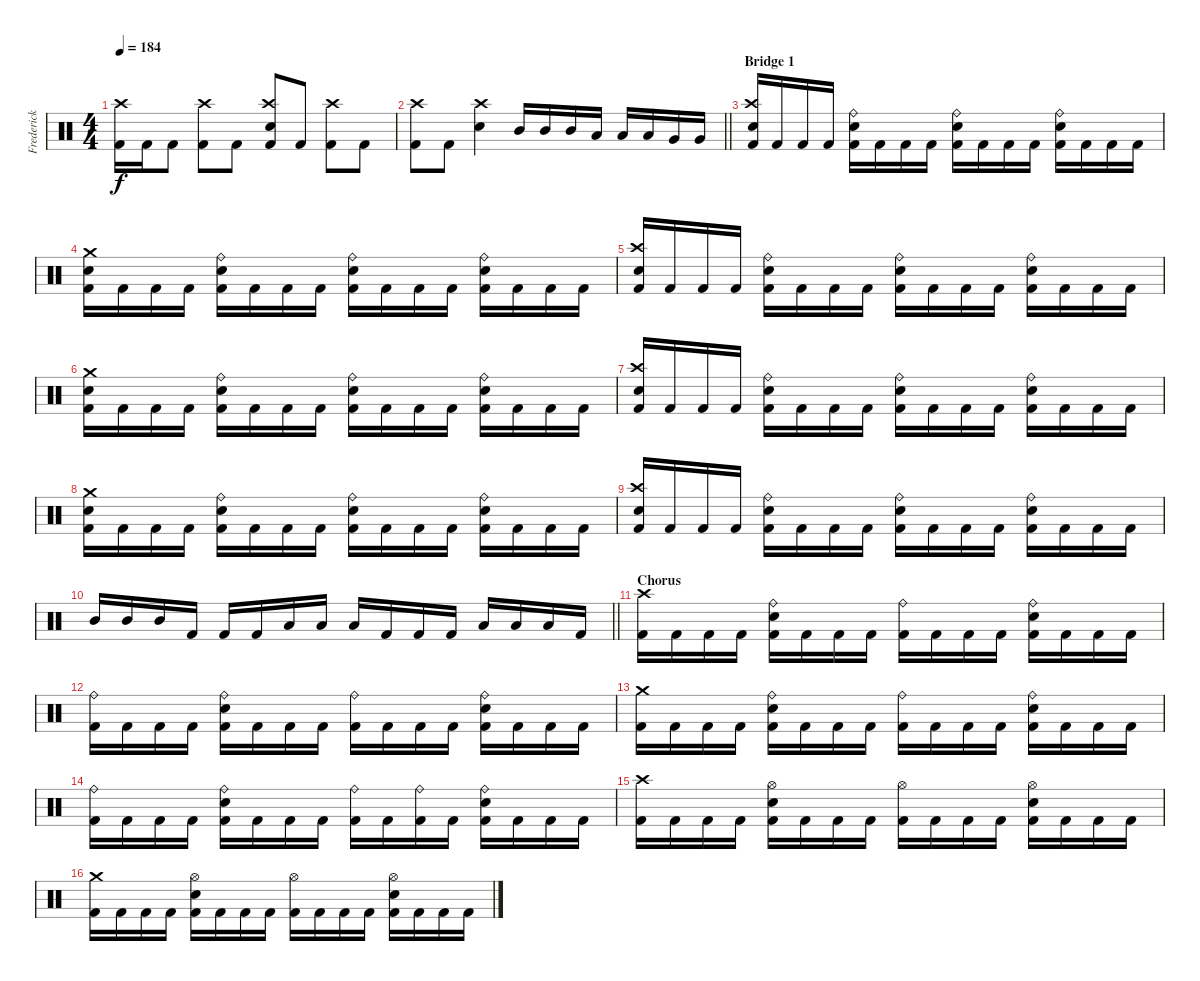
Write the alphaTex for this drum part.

\track ("Frederick Ehmke" "Frederick ") {instrument percussion}
\staff {score}
\articulation defaults
\ts (4 4)
\tempo 184
\clef neutral
\ks c
("Kick (hit) 2" "Crash high (hit)").16{dy f} "Kick (hit) 2".16 "Kick (hit) 2".8 ("Kick (hit) 2" "Crash high (hit)").8 "Kick (hit) 2".8 ("Electric Snare (hit)" "Kick (hit) 2" "Crash high (hit)").8 "Kick (hit) 2".8 ("Kick (hit) 2" "Crash high (hit)").8 "Kick (hit) 2".8 |
\barLineRight lightlight
("Kick (hit) 2" "Crash high (hit)").8 "Kick (hit) 2".8 ("Electric Snare (hit)" "Crash high (hit)").4 "Mid Tom (hit)".16 "Mid Tom (hit)".16 "Mid Tom (hit)".16 "Low Tom (hit)".16 "Low Tom (hit)".16 "Low Tom (hit)".16 "Very Low Tom (hit)".16 "Very Low Tom (hit)".16 |
\section ("" "Bridge 1")
("Electric Snare (hit)" "Kick (hit) 2" "Crash high (hit)").16 "Kick (hit) 2".16 "Kick (hit) 2".16 "Kick (hit) 2".16 ("Electric Snare (hit)" "Kick (hit) 2" "Ride (bell)").16 "Kick (hit) 2".16 "Kick (hit) 2".16 "Kick (hit) 2".16 ("Electric Snare (hit)" "Kick (hit) 2" "Ride (bell)").16 "Kick (hit) 2".16 "Kick (hit) 2".16 "Kick (hit) 2".16 ("Electric Snare (hit)" "Kick (hit) 2" "Ride (bell)").16 "Kick (hit) 2".16 "Kick (hit) 2".16 "Kick (hit) 2".16 |
("Electric Snare (hit)" "Kick (hit) 2" "Crash medium (hit)").16 "Kick (hit) 2".16 "Kick (hit) 2".16 "Kick (hit) 2".16 ("Electric Snare (hit)" "Kick (hit) 2" "Ride (bell)").16 "Kick (hit) 2".16 "Kick (hit) 2".16 "Kick (hit) 2".16 ("Electric Snare (hit)" "Kick (hit) 2" "Ride (bell)").16 "Kick (hit) 2".16 "Kick (hit) 2".16 "Kick (hit) 2".16 ("Electric Snare (hit)" "Kick (hit) 2" "Ride (bell)").16 "Kick (hit) 2".16 "Kick (hit) 2".16 "Kick (hit) 2".16 |
("Electric Snare (hit)" "Kick (hit) 2" "Crash high (hit)").16 "Kick (hit) 2".16 "Kick (hit) 2".16 "Kick (hit) 2".16 ("Electric Snare (hit)" "Kick (hit) 2" "Ride (bell)").16 "Kick (hit) 2".16 "Kick (hit) 2".16 "Kick (hit) 2".16 ("Electric Snare (hit)" "Kick (hit) 2" "Ride (bell)").16 "Kick (hit) 2".16 "Kick (hit) 2".16 "Kick (hit) 2".16 ("Electric Snare (hit)" "Kick (hit) 2" "Ride (bell)").16 "Kick (hit) 2".16 "Kick (hit) 2".16 "Kick (hit) 2".16 |
("Electric Snare (hit)" "Kick (hit) 2" "Crash medium (hit)").16 "Kick (hit) 2".16 "Kick (hit) 2".16 "Kick (hit) 2".16 ("Electric Snare (hit)" "Kick (hit) 2" "Ride (bell)").16 "Kick (hit) 2".16 "Kick (hit) 2".16 "Kick (hit) 2".16 ("Electric Snare (hit)" "Kick (hit) 2" "Ride (bell)").16 "Kick (hit) 2".16 "Kick (hit) 2".16 "Kick (hit) 2".16 ("Electric Snare (hit)" "Kick (hit) 2" "Ride (bell)").16 "Kick (hit) 2".16 "Kick (hit) 2".16 "Kick (hit) 2".16 |
("Electric Snare (hit)" "Kick (hit) 2" "Crash high (hit)").16 "Kick (hit) 2".16 "Kick (hit) 2".16 "Kick (hit) 2".16 ("Electric Snare (hit)" "Kick (hit) 2" "Ride (bell)").16 "Kick (hit) 2".16 "Kick (hit) 2".16 "Kick (hit) 2".16 ("Electric Snare (hit)" "Kick (hit) 2" "Ride (bell)").16 "Kick (hit) 2".16 "Kick (hit) 2".16 "Kick (hit) 2".16 ("Electric Snare (hit)" "Kick (hit) 2" "Ride (bell)").16 "Kick (hit) 2".16 "Kick (hit) 2".16 "Kick (hit) 2".16 |
("Electric Snare (hit)" "Kick (hit) 2" "Crash medium (hit)").16 "Kick (hit) 2".16 "Kick (hit) 2".16 "Kick (hit) 2".16 ("Electric Snare (hit)" "Kick (hit) 2" "Ride (bell)").16 "Kick (hit) 2".16 "Kick (hit) 2".16 "Kick (hit) 2".16 ("Electric Snare (hit)" "Kick (hit) 2" "Ride (bell)").16 "Kick (hit) 2".16 "Kick (hit) 2".16 "Kick (hit) 2".16 ("Electric Snare (hit)" "Kick (hit) 2" "Ride (bell)").16 "Kick (hit) 2".16 "Kick (hit) 2".16 "Kick (hit) 2".16 |
("Electric Snare (hit)" "Kick (hit) 2" "Crash high (hit)").16 "Kick (hit) 2".16 "Kick (hit) 2".16 "Kick (hit) 2".16 ("Electric Snare (hit)" "Kick (hit) 2" "Ride (bell)").16 "Kick (hit) 2".16 "Kick (hit) 2".16 "Kick (hit) 2".16 ("Electric Snare (hit)" "Kick (hit) 2" "Ride (bell)").16 "Kick (hit) 2".16 "Kick (hit) 2".16 "Kick (hit) 2".16 ("Electric Snare (hit)" "Kick (hit) 2" "Ride (bell)").16 "Kick (hit) 2".16 "Kick (hit) 2".16 "Kick (hit) 2".16 |
\barLineRight lightlight "Mid Tom (hit)".16 "Mid Tom (hit)".16 "Mid Tom (hit)".16 "Kick (hit) 2".16 "Kick (hit) 2".16 "Kick (hit) 2".16 "Low Tom (hit)".16 "Low Tom (hit)".16 "Low Tom (hit)".16 "Kick (hit) 2".16 "Kick (hit) 2".16 "Kick (hit) 2".16 "Low Floor Tom (hit)".16 "Low Floor Tom (hit)".16 "Low Floor Tom (hit)".16 "Kick (hit) 2".16
|
\section ("" "Chorus")
("Kick (hit) 2" "Crash high (hit)").16 "Kick (hit) 2".16 "Kick (hit) 2".16 "Kick (hit) 2".16 ("Electric Snare (hit)" "Kick (hit) 2" "Ride (bell)").16 "Kick (hit) 2".16 "Kick (hit) 2".16 "Kick (hit) 2".16 ("Kick (hit) 2" "Ride (bell)").16 "Kick (hit) 2".16 "Kick (hit) 2".16 "Kick (hit) 2".16 ("Electric Snare (hit)" "Kick (hit) 2" "Ride (bell)").16 "Kick (hit) 2".16 "Kick (hit) 2".16 "Kick (hit) 2".16 |
("Kick (hit) 2" "Ride (bell)").16 "Kick (hit) 2".16 "Kick (hit) 2".16 "Kick (hit) 2".16 ("Electric Snare (hit)" "Kick (hit) 2" "Ride (bell)").16 "Kick (hit) 2".16 "Kick (hit) 2".16 "Kick (hit) 2".16 ("Kick (hit) 2" "Ride (bell)").16 "Kick (hit) 2".16 "Kick (hit) 2".16 "Kick (hit) 2".16 ("Electric Snare (hit)" "Kick (hit) 2" "Ride (bell)").16 "Kick (hit) 2".16 "Kick (hit) 2".16 "Kick (hit) 2".16 |
("Kick (hit) 2" "Crash medium (hit)").16 "Kick (hit) 2".16 "Kick (hit) 2".16 "Kick (hit) 2".16 ("Electric Snare (hit)" "Kick (hit) 2" "Ride (bell)").16 "Kick (hit) 2".16 "Kick (hit) 2".16 "Kick (hit) 2".16 ("Kick (hit) 2" "Ride (bell)").16 "Kick (hit) 2".16 "Kick (hit) 2".16 "Kick (hit) 2".16 ("Electric Snare (hit)" "Kick (hit) 2" "Ride (bell)").16 "Kick (hit) 2".16 "Kick (hit) 2".16 "Kick (hit) 2".16 |
("Kick (hit) 2" "Ride (bell)").16 "Kick (hit) 2".16 "Kick (hit) 2".16 "Kick (hit) 2".16 ("Electric Snare (hit)" "Kick (hit) 2" "Ride (bell)").16 "Kick (hit) 2".16 "Kick (hit) 2".16 "Kick (hit) 2".16 ("Kick (hit) 2" "Ride (bell)").16 "Kick (hit) 2".16 ("Kick (hit) 2" "Ride (bell)").16 "Kick (hit) 2".16 ("Electric Snare (hit)" "Kick (hit) 2" "Ride (bell)").16 "Kick (hit) 2".16 "Kick (hit) 2".16 "Kick (hit) 2".16 |
("Kick (hit) 2" "Crash high (hit)").16 "Kick (hit) 2".16 "Kick (hit) 2".16 "Kick (hit) 2".16 ("Electric Snare (hit)" "Kick (hit) 2" "Hi-Hat (open)").16 "Kick (hit) 2".16 "Kick (hit) 2".16 "Kick (hit) 2".16 ("Kick (hit) 2" "Hi-Hat (open)").16 "Kick (hit) 2".16 "Kick (hit) 2".16 "Kick (hit) 2".16 ("Electric Snare (hit)" "Kick (hit) 2" "Hi-Hat (open)").16 "Kick (hit) 2".16 "Kick (hit) 2".16 "Kick (hit) 2".16 |
("Kick (hit) 2" "Crash medium (hit)").16 "Kick (hit) 2".16 "Kick (hit) 2".16 "Kick (hit) 2".16 ("Electric Snare (hit)" "Kick (hit) 2" "Hi-Hat (open)").16 "Kick (hit) 2".16 "Kick (hit) 2".16 "Kick (hit) 2".16 ("Kick (hit) 2" "Hi-Hat (open)").16 "Kick (hit) 2".16 "Kick (hit) 2".16 "Kick (hit) 2".16 ("Electric Snare (hit)" "Kick (hit) 2" "Hi-Hat (open)").16 "Kick (hit) 2".16 "Kick (hit) 2".16 "Kick (hit) 2".16
